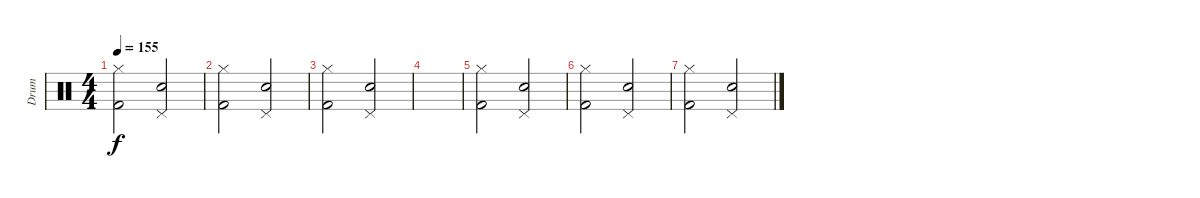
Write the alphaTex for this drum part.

\track ("Drum" "Drum") {instrument percussion}
\staff {score}
\articulation defaults
\ts (4 4)
\tempo 155
\clef neutral
\ks c
("Hi-Hat (closed)" "Kick (hit) 2").2{dy f} ("Pedal Hi-Hat (hit)" "Snare (hit) 2").2 |
("Hi-Hat (closed)" "Kick (hit) 2").2 ("Pedal Hi-Hat (hit)" "Snare (hit) 2").2 |
("Hi-Hat (closed)" "Kick (hit) 2").2 ("Pedal Hi-Hat (hit)" "Snare (hit) 2").2 |
|
("Hi-Hat (closed)" "Kick (hit) 2").2 ("Pedal Hi-Hat (hit)" "Snare (hit) 2").2 |
("Hi-Hat (closed)" "Kick (hit) 2").2 ("Pedal Hi-Hat (hit)" "Snare (hit) 2").2 |
("Hi-Hat (closed)" "Kick (hit) 2").2 ("Pedal Hi-Hat (hit)" "Snare (hit) 2").2
